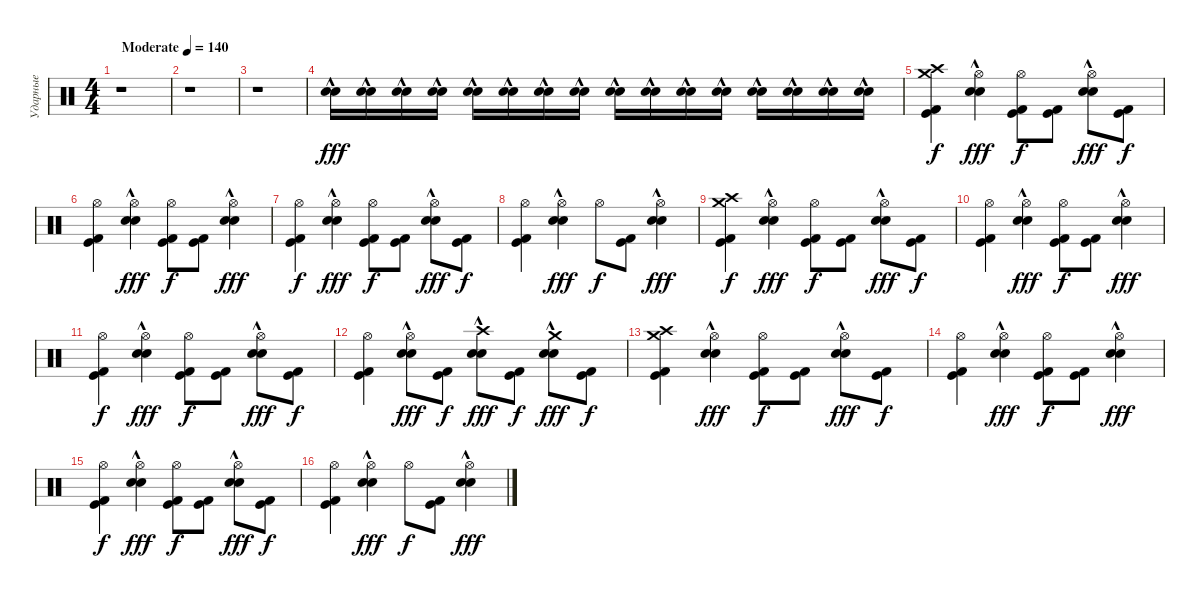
\track ("Ударные" "Ударные") {instrument percussion}
\staff {score}
\articulation defaults
\ts (4 4)
\tempo (140 "Moderate")
\clef neutral
\ks c
r.1{dy fff} |
r.1 |
r.1 |
("Snare (hit) 2"{hac} "Electric Snare (hit)"{hac}).16 ("Snare (hit) 2"{hac} "Electric Snare (hit)"{hac}).16 ("Snare (hit) 2"{hac} "Electric Snare (hit)"{hac}).16 ("Snare (hit) 2"{hac} "Electric Snare (hit)"{hac}).16 ("Snare (hit) 2"{hac} "Electric Snare (hit)"{hac}).16 ("Snare (hit) 2"{hac} "Electric Snare (hit)"{hac}).16 ("Snare (hit) 2"{hac} "Electric Snare (hit)"{hac}).16 ("Snare (hit) 2"{hac} "Electric Snare (hit)"{hac}).16 ("Snare (hit) 2"{hac} "Electric Snare (hit)"{hac}).16 ("Snare (hit) 2"{hac} "Electric Snare (hit)"{hac}).16 ("Snare (hit) 2"{hac} "Electric Snare (hit)"{hac}).16 ("Snare (hit) 2"{hac} "Electric Snare (hit)"{hac}).16 ("Snare (hit) 2"{hac} "Electric Snare (hit)"{hac}).16 ("Snare (hit) 2"{hac} "Electric Snare (hit)"{hac}).16 ("Snare (hit) 2"{hac} "Electric Snare (hit)"{hac}).16 ("Snare (hit) 2"{hac} "Electric Snare (hit)"{hac}).16 |
("Crash high (hit)" "Kick (hit)" "Kick (hit) 2" "Crash medium (hit)").4{dy f} ("Hi-Hat (open)" "Snare (hit) 2"{hac} "Electric Snare (hit)"{hac}).4{dy fff} ("Hi-Hat (open)" "Kick (hit)" "Kick (hit) 2").8{dy f} ("Kick (hit)" "Kick (hit) 2").8 ("Hi-Hat (open)" "Snare (hit) 2"{hac} "Electric Snare (hit)"{hac}).8{dy fff} ("Kick (hit)" "Kick (hit) 2").8{dy f} |
("Hi-Hat (open)" "Kick (hit)" "Kick (hit) 2").4 ("Hi-Hat (open)" "Snare (hit) 2"{hac} "Electric Snare (hit)"{hac}).4{dy fff} ("Hi-Hat (open)" "Kick (hit)" "Kick (hit) 2").8{dy f} ("Kick (hit)" "Kick (hit) 2").8 ("Hi-Hat (open)" "Snare (hit) 2"{hac} "Electric Snare (hit)"{hac}).4{dy fff} |
("Hi-Hat (open)" "Kick (hit)" "Kick (hit) 2").4{dy f} ("Hi-Hat (open)" "Snare (hit) 2"{hac} "Electric Snare (hit)"{hac}).4{dy fff} ("Hi-Hat (open)" "Kick (hit)" "Kick (hit) 2").8{dy f} ("Kick (hit)" "Kick (hit) 2").8 ("Hi-Hat (open)" "Snare (hit) 2"{hac} "Electric Snare (hit)"{hac}).8{dy fff} ("Kick (hit)" "Kick (hit) 2").8{dy f} |
("Hi-Hat (open)" "Kick (hit)" "Kick (hit) 2").4 ("Hi-Hat (open)" "Snare (hit) 2"{hac} "Electric Snare (hit)"{hac}).4{dy fff} "Hi-Hat (open)".8{dy f} ("Kick (hit)" "Kick (hit) 2").8 ("Hi-Hat (open)" "Snare (hit) 2"{hac} "Electric Snare (hit)"{hac}).4{dy fff} |
("Crash high (hit)" "Kick (hit)" "Kick (hit) 2" "Crash medium (hit)").4{dy f} ("Hi-Hat (open)" "Snare (hit) 2"{hac} "Electric Snare (hit)"{hac}).4{dy fff} ("Hi-Hat (open)" "Kick (hit)" "Kick (hit) 2").8{dy f} ("Kick (hit)" "Kick (hit) 2").8 ("Hi-Hat (open)" "Snare (hit) 2"{hac} "Electric Snare (hit)"{hac}).8{dy fff} ("Kick (hit)" "Kick (hit) 2").8{dy f} |
("Hi-Hat (open)" "Kick (hit)" "Kick (hit) 2").4 ("Hi-Hat (open)" "Snare (hit) 2"{hac} "Electric Snare (hit)"{hac}).4{dy fff} ("Hi-Hat (open)" "Kick (hit)" "Kick (hit) 2").8{dy f} ("Kick (hit)" "Kick (hit) 2").8 ("Hi-Hat (open)" "Snare (hit) 2"{hac} "Electric Snare (hit)"{hac}).4{dy fff} |
("Hi-Hat (open)" "Kick (hit)" "Kick (hit) 2").4{dy f} ("Hi-Hat (open)" "Snare (hit) 2"{hac} "Electric Snare (hit)"{hac}).4{dy fff} ("Hi-Hat (open)" "Kick (hit)" "Kick (hit) 2").8{dy f} ("Kick (hit)" "Kick (hit) 2").8 ("Hi-Hat (open)" "Snare (hit) 2"{hac} "Electric Snare (hit)"{hac}).8{dy fff} ("Kick (hit)" "Kick (hit) 2").8{dy f} |
("Hi-Hat (open)" "Kick (hit)" "Kick (hit) 2").4 ("Hi-Hat (open)" "Snare (hit) 2"{hac} "Electric Snare (hit)"{hac}).8{dy fff} ("Kick (hit)" "Kick (hit) 2").8{dy f} ("Crash high (hit)" "Snare (hit) 2"{hac} "Electric Snare (hit)"{hac}).8{dy fff} ("Kick (hit)" "Kick (hit) 2").8{dy f} ("Crash medium (hit)" "Snare (hit) 2"{hac} "Electric Snare (hit)"{hac}).8{dy fff} ("Kick (hit)" "Kick (hit) 2").8{dy f} |
("Crash high (hit)" "Kick (hit)" "Kick (hit) 2" "Crash medium (hit)").4 ("Hi-Hat (open)" "Snare (hit) 2"{hac} "Electric Snare (hit)"{hac}).4{dy fff} ("Hi-Hat (open)" "Kick (hit)" "Kick (hit) 2").8{dy f} ("Kick (hit)" "Kick (hit) 2").8 ("Hi-Hat (open)" "Snare (hit) 2"{hac} "Electric Snare (hit)"{hac}).8{dy fff} ("Kick (hit)" "Kick (hit) 2").8{dy f} |
("Hi-Hat (open)" "Kick (hit)" "Kick (hit) 2").4 ("Hi-Hat (open)" "Snare (hit) 2"{hac} "Electric Snare (hit)"{hac}).4{dy fff} ("Hi-Hat (open)" "Kick (hit)" "Kick (hit) 2").8{dy f} ("Kick (hit)" "Kick (hit) 2").8 ("Hi-Hat (open)" "Snare (hit) 2"{hac} "Electric Snare (hit)"{hac}).4{dy fff} |
("Hi-Hat (open)" "Kick (hit)" "Kick (hit) 2").4{dy f} ("Hi-Hat (open)" "Snare (hit) 2"{hac} "Electric Snare (hit)"{hac}).4{dy fff} ("Hi-Hat (open)" "Kick (hit)" "Kick (hit) 2").8{dy f} ("Kick (hit)" "Kick (hit) 2").8 ("Hi-Hat (open)" "Snare (hit) 2"{hac} "Electric Snare (hit)"{hac}).8{dy fff} ("Kick (hit)" "Kick (hit) 2").8{dy f} |
("Hi-Hat (open)" "Kick (hit)" "Kick (hit) 2").4 ("Hi-Hat (open)" "Snare (hit) 2"{hac} "Electric Snare (hit)"{hac}).4{dy fff} "Hi-Hat (open)".8{dy f} ("Kick (hit)" "Kick (hit) 2").8 ("Hi-Hat (open)" "Snare (hit) 2"{hac} "Electric Snare (hit)"{hac}).4{dy fff}
